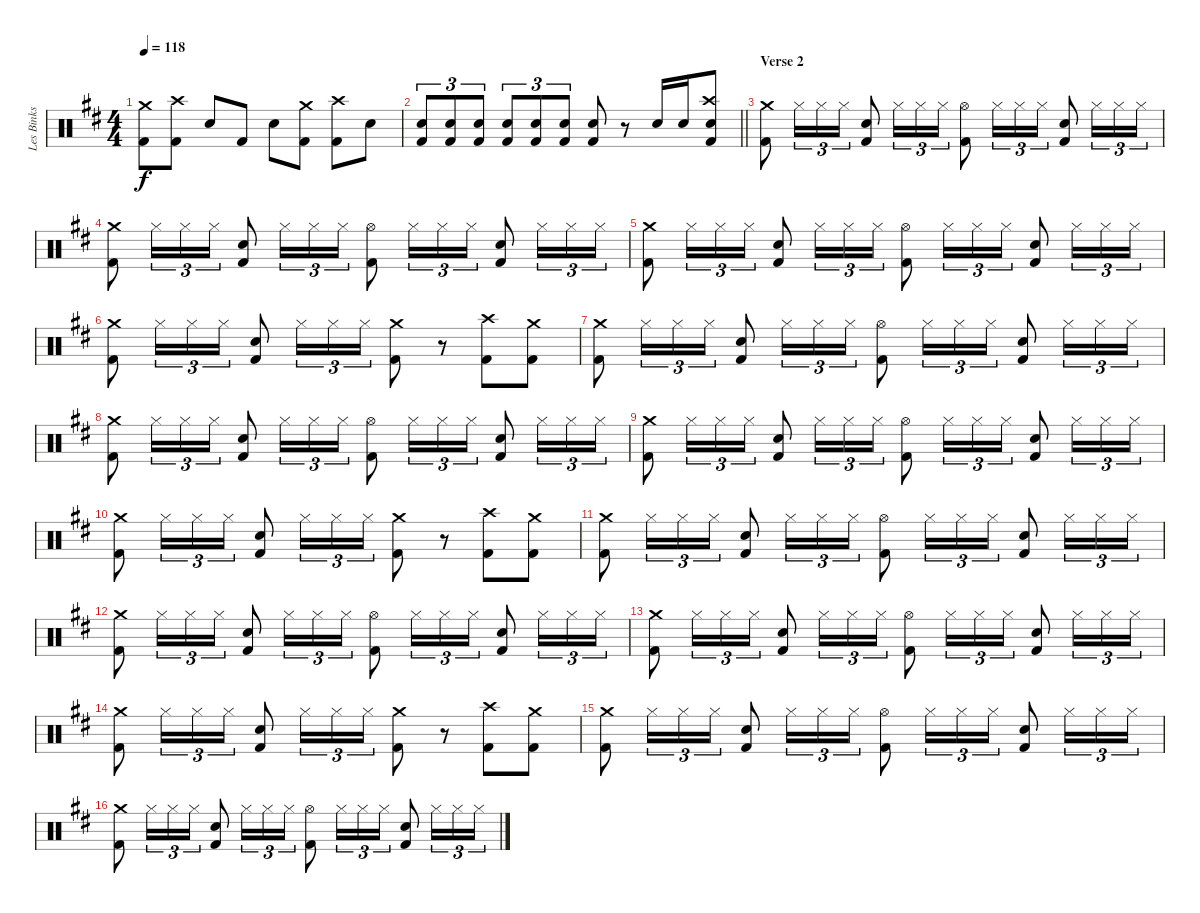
\track ("Les Binks" "Les Binks") {instrument percussion}
\staff {score}
\articulation defaults
\ts (4 4)
\tempo 118
\clef neutral
\ks d
("Crash medium (hit)" "Kick (hit) 2").8{dy f} ("Crash high (hit)" "Kick (hit) 2").8 "Snare (hit) 2".8 "Kick (hit) 2".8 "Snare (hit) 2".8 ("Crash medium (hit)" "Kick (hit) 2").8 ("Crash high (hit)" "Kick (hit) 2").8 "Snare (hit) 2".8 |
\barLineRight lightlight
("Snare (hit) 2" "Kick (hit) 2").8{tu (3 2)} ("Snare (hit) 2" "Kick (hit) 2").8{tu (3 2)} ("Snare (hit) 2" "Kick (hit) 2").8{tu (3 2)} ("Snare (hit) 2" "Kick (hit) 2").8{tu (3 2)} ("Snare (hit) 2" "Kick (hit) 2").8{tu (3 2)} ("Snare (hit) 2" "Kick (hit) 2").8{tu (3 2)} ("Snare (hit) 2" "Kick (hit) 2").8 r.8 "Snare (hit) 2".16 "Snare (hit) 2".16 ("Crash high (hit)" "Snare (hit) 2" "Kick (hit) 2").8 |
\section ("" "Verse 2")
("Crash medium (hit)" "Kick (hit) 2").8 "Hi-Hat (closed)".16{tu (3 2)} "Hi-Hat (closed)".16{tu (3 2)} "Hi-Hat (closed)".16{tu (3 2)} ("Snare (hit) 2" "Kick (hit) 2").8 "Hi-Hat (closed)".16{tu (3 2)} "Hi-Hat (closed)".16{tu (3 2)} "Hi-Hat (closed)".16{tu (3 2)} ("Hi-Hat (open)" "Kick (hit) 2").8 "Hi-Hat (closed)".16{tu (3 2)} "Hi-Hat (closed)".16{tu (3 2)} "Hi-Hat (closed)".16{tu (3 2)} ("Snare (hit) 2" "Kick (hit) 2").8 "Hi-Hat (closed)".16{tu (3 2)} "Hi-Hat (closed)".16{tu (3 2)} "Hi-Hat (closed)".16{tu (3 2)} |
("Crash medium (hit)" "Kick (hit) 2").8 "Hi-Hat (closed)".16{tu (3 2)} "Hi-Hat (closed)".16{tu (3 2)} "Hi-Hat (closed)".16{tu (3 2)} ("Snare (hit) 2" "Kick (hit) 2").8 "Hi-Hat (closed)".16{tu (3 2)} "Hi-Hat (closed)".16{tu (3 2)} "Hi-Hat (closed)".16{tu (3 2)} ("Hi-Hat (open)" "Kick (hit) 2").8 "Hi-Hat (closed)".16{tu (3 2)} "Hi-Hat (closed)".16{tu (3 2)} "Hi-Hat (closed)".16{tu (3 2)} ("Snare (hit) 2" "Kick (hit) 2").8 "Hi-Hat (closed)".16{tu (3 2)} "Hi-Hat (closed)".16{tu (3 2)} "Hi-Hat (closed)".16{tu (3 2)} |
("Crash medium (hit)" "Kick (hit) 2").8 "Hi-Hat (closed)".16{tu (3 2)} "Hi-Hat (closed)".16{tu (3 2)} "Hi-Hat (closed)".16{tu (3 2)} ("Snare (hit) 2" "Kick (hit) 2").8 "Hi-Hat (closed)".16{tu (3 2)} "Hi-Hat (closed)".16{tu (3 2)} "Hi-Hat (closed)".16{tu (3 2)} ("Hi-Hat (open)" "Kick (hit) 2").8 "Hi-Hat (closed)".16{tu (3 2)} "Hi-Hat (closed)".16{tu (3 2)} "Hi-Hat (closed)".16{tu (3 2)} ("Snare (hit) 2" "Kick (hit) 2").8 "Hi-Hat (closed)".16{tu (3 2)} "Hi-Hat (closed)".16{tu (3 2)} "Hi-Hat (closed)".16{tu (3 2)} |
("Crash medium (hit)" "Kick (hit) 2").8 "Hi-Hat (closed)".16{tu (3 2)} "Hi-Hat (closed)".16{tu (3 2)} "Hi-Hat (closed)".16{tu (3 2)} ("Snare (hit) 2" "Kick (hit) 2").8 "Hi-Hat (closed)".16{tu (3 2)} "Hi-Hat (closed)".16{tu (3 2)} "Hi-Hat (closed)".16{tu (3 2)} ("Crash medium (hit)" "Kick (hit) 2").8 r.8 ("Crash high (hit)" "Kick (hit) 2").8 ("Crash medium (hit)" "Kick (hit) 2").8 |
("Crash medium (hit)" "Kick (hit) 2").8 "Hi-Hat (closed)".16{tu (3 2)} "Hi-Hat (closed)".16{tu (3 2)} "Hi-Hat (closed)".16{tu (3 2)} ("Snare (hit) 2" "Kick (hit) 2").8 "Hi-Hat (closed)".16{tu (3 2)} "Hi-Hat (closed)".16{tu (3 2)} "Hi-Hat (closed)".16{tu (3 2)} ("Hi-Hat (open)" "Kick (hit) 2").8 "Hi-Hat (closed)".16{tu (3 2)} "Hi-Hat (closed)".16{tu (3 2)} "Hi-Hat (closed)".16{tu (3 2)} ("Snare (hit) 2" "Kick (hit) 2").8 "Hi-Hat (closed)".16{tu (3 2)} "Hi-Hat (closed)".16{tu (3 2)} "Hi-Hat (closed)".16{tu (3 2)} |
("Crash medium (hit)" "Kick (hit) 2").8 "Hi-Hat (closed)".16{tu (3 2)} "Hi-Hat (closed)".16{tu (3 2)} "Hi-Hat (closed)".16{tu (3 2)} ("Snare (hit) 2" "Kick (hit) 2").8 "Hi-Hat (closed)".16{tu (3 2)} "Hi-Hat (closed)".16{tu (3 2)} "Hi-Hat (closed)".16{tu (3 2)} ("Hi-Hat (open)" "Kick (hit) 2").8 "Hi-Hat (closed)".16{tu (3 2)} "Hi-Hat (closed)".16{tu (3 2)} "Hi-Hat (closed)".16{tu (3 2)} ("Snare (hit) 2" "Kick (hit) 2").8 "Hi-Hat (closed)".16{tu (3 2)} "Hi-Hat (closed)".16{tu (3 2)} "Hi-Hat (closed)".16{tu (3 2)} |
("Crash medium (hit)" "Kick (hit) 2").8 "Hi-Hat (closed)".16{tu (3 2)} "Hi-Hat (closed)".16{tu (3 2)} "Hi-Hat (closed)".16{tu (3 2)} ("Snare (hit) 2" "Kick (hit) 2").8 "Hi-Hat (closed)".16{tu (3 2)} "Hi-Hat (closed)".16{tu (3 2)} "Hi-Hat (closed)".16{tu (3 2)} ("Hi-Hat (open)" "Kick (hit) 2").8 "Hi-Hat (closed)".16{tu (3 2)} "Hi-Hat (closed)".16{tu (3 2)} "Hi-Hat (closed)".16{tu (3 2)} ("Snare (hit) 2" "Kick (hit) 2").8 "Hi-Hat (closed)".16{tu (3 2)} "Hi-Hat (closed)".16{tu (3 2)} "Hi-Hat (closed)".16{tu (3 2)} |
("Crash medium (hit)" "Kick (hit) 2").8 "Hi-Hat (closed)".16{tu (3 2)} "Hi-Hat (closed)".16{tu (3 2)} "Hi-Hat (closed)".16{tu (3 2)} ("Snare (hit) 2" "Kick (hit) 2").8 "Hi-Hat (closed)".16{tu (3 2)} "Hi-Hat (closed)".16{tu (3 2)} "Hi-Hat (closed)".16{tu (3 2)} ("Crash medium (hit)" "Kick (hit) 2").8 r.8 ("Crash high (hit)" "Kick (hit) 2").8 ("Crash medium (hit)" "Kick (hit) 2").8 |
("Crash medium (hit)" "Kick (hit) 2").8 "Hi-Hat (closed)".16{tu (3 2)} "Hi-Hat (closed)".16{tu (3 2)} "Hi-Hat (closed)".16{tu (3 2)} ("Snare (hit) 2" "Kick (hit) 2").8 "Hi-Hat (closed)".16{tu (3 2)} "Hi-Hat (closed)".16{tu (3 2)} "Hi-Hat (closed)".16{tu (3 2)} ("Hi-Hat (open)" "Kick (hit) 2").8 "Hi-Hat (closed)".16{tu (3 2)} "Hi-Hat (closed)".16{tu (3 2)} "Hi-Hat (closed)".16{tu (3 2)} ("Snare (hit) 2" "Kick (hit) 2").8 "Hi-Hat (closed)".16{tu (3 2)} "Hi-Hat (closed)".16{tu (3 2)} "Hi-Hat (closed)".16{tu (3 2)} |
("Crash medium (hit)" "Kick (hit) 2").8 "Hi-Hat (closed)".16{tu (3 2)} "Hi-Hat (closed)".16{tu (3 2)} "Hi-Hat (closed)".16{tu (3 2)} ("Snare (hit) 2" "Kick (hit) 2").8 "Hi-Hat (closed)".16{tu (3 2)} "Hi-Hat (closed)".16{tu (3 2)} "Hi-Hat (closed)".16{tu (3 2)} ("Hi-Hat (open)" "Kick (hit) 2").8 "Hi-Hat (closed)".16{tu (3 2)} "Hi-Hat (closed)".16{tu (3 2)} "Hi-Hat (closed)".16{tu (3 2)} ("Snare (hit) 2" "Kick (hit) 2").8 "Hi-Hat (closed)".16{tu (3 2)} "Hi-Hat (closed)".16{tu (3 2)} "Hi-Hat (closed)".16{tu (3 2)} |
("Crash medium (hit)" "Kick (hit) 2").8 "Hi-Hat (closed)".16{tu (3 2)} "Hi-Hat (closed)".16{tu (3 2)} "Hi-Hat (closed)".16{tu (3 2)} ("Snare (hit) 2" "Kick (hit) 2").8 "Hi-Hat (closed)".16{tu (3 2)} "Hi-Hat (closed)".16{tu (3 2)} "Hi-Hat (closed)".16{tu (3 2)} ("Hi-Hat (open)" "Kick (hit) 2").8 "Hi-Hat (closed)".16{tu (3 2)} "Hi-Hat (closed)".16{tu (3 2)} "Hi-Hat (closed)".16{tu (3 2)} ("Snare (hit) 2" "Kick (hit) 2").8 "Hi-Hat (closed)".16{tu (3 2)} "Hi-Hat (closed)".16{tu (3 2)} "Hi-Hat (closed)".16{tu (3 2)} |
("Crash medium (hit)" "Kick (hit) 2").8 "Hi-Hat (closed)".16{tu (3 2)} "Hi-Hat (closed)".16{tu (3 2)} "Hi-Hat (closed)".16{tu (3 2)} ("Snare (hit) 2" "Kick (hit) 2").8 "Hi-Hat (closed)".16{tu (3 2)} "Hi-Hat (closed)".16{tu (3 2)} "Hi-Hat (closed)".16{tu (3 2)} ("Crash medium (hit)" "Kick (hit) 2").8 r.8 ("Crash high (hit)" "Kick (hit) 2").8 ("Crash medium (hit)" "Kick (hit) 2").8 |
("Crash medium (hit)" "Kick (hit) 2").8 "Hi-Hat (closed)".16{tu (3 2)} "Hi-Hat (closed)".16{tu (3 2)} "Hi-Hat (closed)".16{tu (3 2)} ("Snare (hit) 2" "Kick (hit) 2").8 "Hi-Hat (closed)".16{tu (3 2)} "Hi-Hat (closed)".16{tu (3 2)} "Hi-Hat (closed)".16{tu (3 2)} ("Hi-Hat (open)" "Kick (hit) 2").8 "Hi-Hat (closed)".16{tu (3 2)} "Hi-Hat (closed)".16{tu (3 2)} "Hi-Hat (closed)".16{tu (3 2)} ("Snare (hit) 2" "Kick (hit) 2").8 "Hi-Hat (closed)".16{tu (3 2)} "Hi-Hat (closed)".16{tu (3 2)} "Hi-Hat (closed)".16{tu (3 2)} |
("Crash medium (hit)" "Kick (hit) 2").8 "Hi-Hat (closed)".16{tu (3 2)} "Hi-Hat (closed)".16{tu (3 2)} "Hi-Hat (closed)".16{tu (3 2)} ("Snare (hit) 2" "Kick (hit) 2").8 "Hi-Hat (closed)".16{tu (3 2)} "Hi-Hat (closed)".16{tu (3 2)} "Hi-Hat (closed)".16{tu (3 2)} ("Hi-Hat (open)" "Kick (hit) 2").8 "Hi-Hat (closed)".16{tu (3 2)} "Hi-Hat (closed)".16{tu (3 2)} "Hi-Hat (closed)".16{tu (3 2)} ("Snare (hit) 2" "Kick (hit) 2").8 "Hi-Hat (closed)".16{tu (3 2)} "Hi-Hat (closed)".16{tu (3 2)} "Hi-Hat (closed)".16{tu (3 2)}
